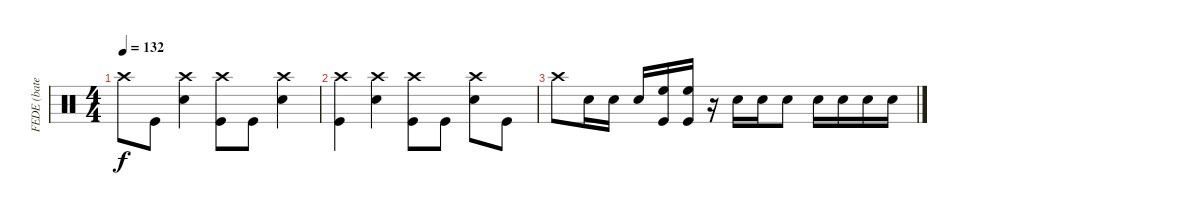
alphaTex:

\track ("FEDE (bateria)" "FEDE (bate") {instrument percussion}
\staff {score}
\articulation defaults
\ts (4 4)
\tempo 132
\clef neutral
\ks c "Crash high (hit)".8{dy f} "Kick (hit)".8
("Crash high (hit)" "Snare (hit) 2").4 ("Crash high (hit)" "Kick (hit)").8 "Kick (hit)".8 ("Crash high (hit)" "Snare (hit) 2").4 |
("Crash high (hit)" "Kick (hit)").4 ("Crash high (hit)" "Snare (hit) 2").4 ("Crash high (hit)" "Kick (hit)").8 "Kick (hit)".8 ("Crash high (hit)" "Snare (hit) 2").8 "Kick (hit)".8 |
"Crash high (hit)".8 "Snare (hit) 2".16 "Snare (hit) 2".16 "Snare (hit) 2".16 ("High Floor Tom (hit)" "Kick (hit)").16 ("High Floor Tom (hit)" "Kick (hit)").16 r.16 "Snare (hit) 2".16 "Snare (hit) 2".16 "Snare (hit) 2".8 "Snare (hit) 2".16 "Snare (hit) 2".16 "Snare (hit) 2".16 "Snare (hit) 2".16
